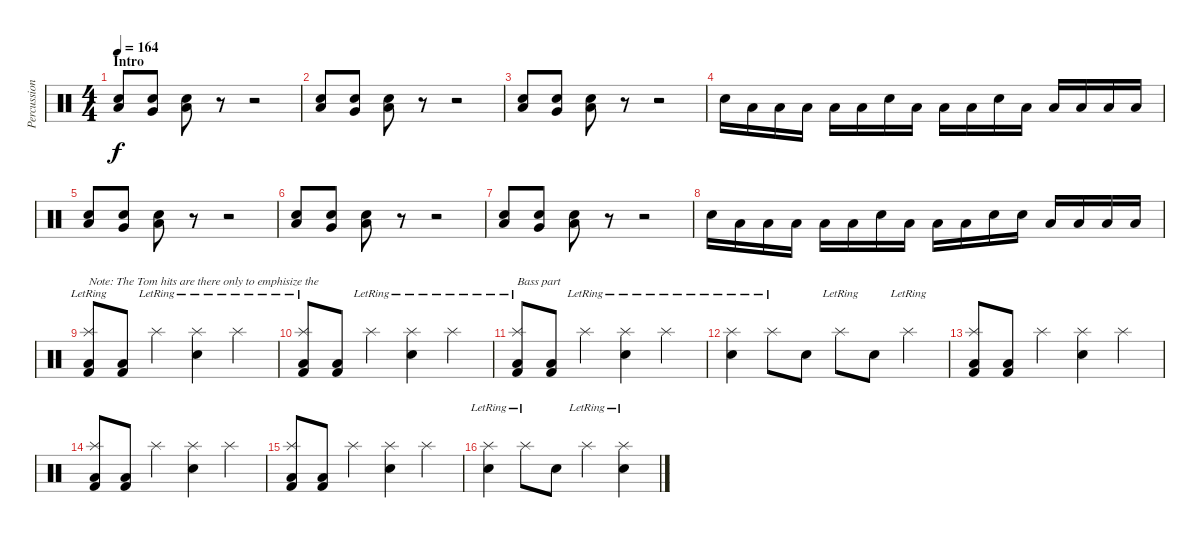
\track ("Percussion" "Percussion") {instrument percussion}
\staff {score}
\articulation defaults
\ts (4 4)
\section ("" "Intro")
\tempo 164
\clef neutral
\ks c
("Snare (hit) 2" "Low Tom (hit)").8{dy f} ("Snare (hit) 2" "Very Low Tom (hit)").8 ("Snare (hit) 2" "Low Floor Tom (hit)").8 r.8 r.2 |
("Snare (hit) 2" "Low Tom (hit)").8 ("Snare (hit) 2" "Very Low Tom (hit)").8 ("Snare (hit) 2" "Low Floor Tom (hit)").8 r.8 r.2 |
("Snare (hit) 2" "Low Tom (hit)").8 ("Snare (hit) 2" "Very Low Tom (hit)").8 ("Snare (hit) 2" "Low Floor Tom (hit)").8 r.8 r.2 |
"Snare (hit) 2".16 "Low Tom (hit)".16 "Low Tom (hit)".16 "Low Tom (hit)".16 "Low Tom (hit)".16 "Low Tom (hit)".16 "Snare (hit) 2".16 "Low Tom (hit)".16 "Low Tom (hit)".16 "Low Tom (hit)".16 "Snare (hit) 2".16 "Low Tom (hit)".16 "Low Tom (hit)".16 "Low Tom (hit)".16 "Low Tom (hit)".16 "Low Tom (hit)".16 |
("Snare (hit) 2" "Low Tom (hit)").8 ("Snare (hit) 2" "Very Low Tom (hit)").8 ("Snare (hit) 2" "Low Floor Tom (hit)").8 r.8 r.2 |
("Snare (hit) 2" "Low Tom (hit)").8 ("Snare (hit) 2" "Very Low Tom (hit)").8 ("Snare (hit) 2" "Low Floor Tom (hit)").8 r.8 r.2 |
("Snare (hit) 2" "Low Tom (hit)").8 ("Snare (hit) 2" "Very Low Tom (hit)").8 ("Snare (hit) 2" "Low Floor Tom (hit)").8 r.8 r.2 |
"Snare (hit) 2".16 "Low Tom (hit)".16 "Low Tom (hit)".16 "Low Tom (hit)".16 "Low Tom (hit)".16 "Low Tom (hit)".16 "Snare (hit) 2".16 "Low Tom (hit)".16 "Low Tom (hit)".16 "Low Tom (hit)".16 "Snare (hit) 2".16 "Snare (hit) 2".16 "Low Tom (hit)".16 "Low Tom (hit)".16 "Low Tom (hit)".16 "Low Tom (hit)".16 |
("Splash (hit)"{lr} "Low Floor Tom (hit)" "Kick (hit) 2").8{txt "Note: The Tom hits are there only to emphisize the"} ("Low Floor Tom (hit)" "Kick (hit) 2").8 "Splash (hit)"{lr}.4 ("Splash (hit)"{lr} "Snare (hit) 2").4 "Splash (hit)"{lr}.4 |
("Splash (hit)"{lr} "Low Floor Tom (hit)" "Kick (hit) 2").8 ("Low Floor Tom (hit)" "Kick (hit) 2").8 "Splash (hit)"{lr}.4 ("Splash (hit)"{lr} "Snare (hit) 2").4 "Splash (hit)"{lr}.4 |
("Splash (hit)"{lr} "Low Floor Tom (hit)" "Kick (hit) 2").8{txt "Bass part"} ("Low Floor Tom (hit)" "Kick (hit) 2").8 "Splash (hit)"{lr}.4 ("Splash (hit)"{lr} "Snare (hit) 2").4 "Splash (hit)"{lr}.4 |
("Splash (hit)"{lr} "Snare (hit) 2").4 "Splash (hit)"{lr}.8 "Snare (hit) 2".8 "Splash (hit)"{lr}.8 "Snare (hit) 2".8 "Splash (hit)"{lr}.4 |
("Splash (hit)" "Low Floor Tom (hit)" "Kick (hit) 2").8 ("Low Floor Tom (hit)" "Kick (hit) 2").8 "Splash (hit)".4 ("Splash (hit)" "Snare (hit) 2").4 "Splash (hit)".4 |
("Splash (hit)" "Low Floor Tom (hit)" "Kick (hit) 2").8 ("Low Floor Tom (hit)" "Kick (hit) 2").8 "Splash (hit)".4 ("Splash (hit)" "Snare (hit) 2").4 "Splash (hit)".4 |
("Splash (hit)" "Low Floor Tom (hit)" "Kick (hit) 2").8 ("Low Floor Tom (hit)" "Kick (hit) 2").8 "Splash (hit)".4 ("Splash (hit)" "Snare (hit) 2").4 "Splash (hit)".4 |
("Splash (hit)"{lr} "Snare (hit) 2").4 "Splash (hit)"{lr}.8 "Snare (hit) 2".8 "Splash (hit)"{lr}.4 ("Splash (hit)"{lr} "Snare (hit) 2").4
